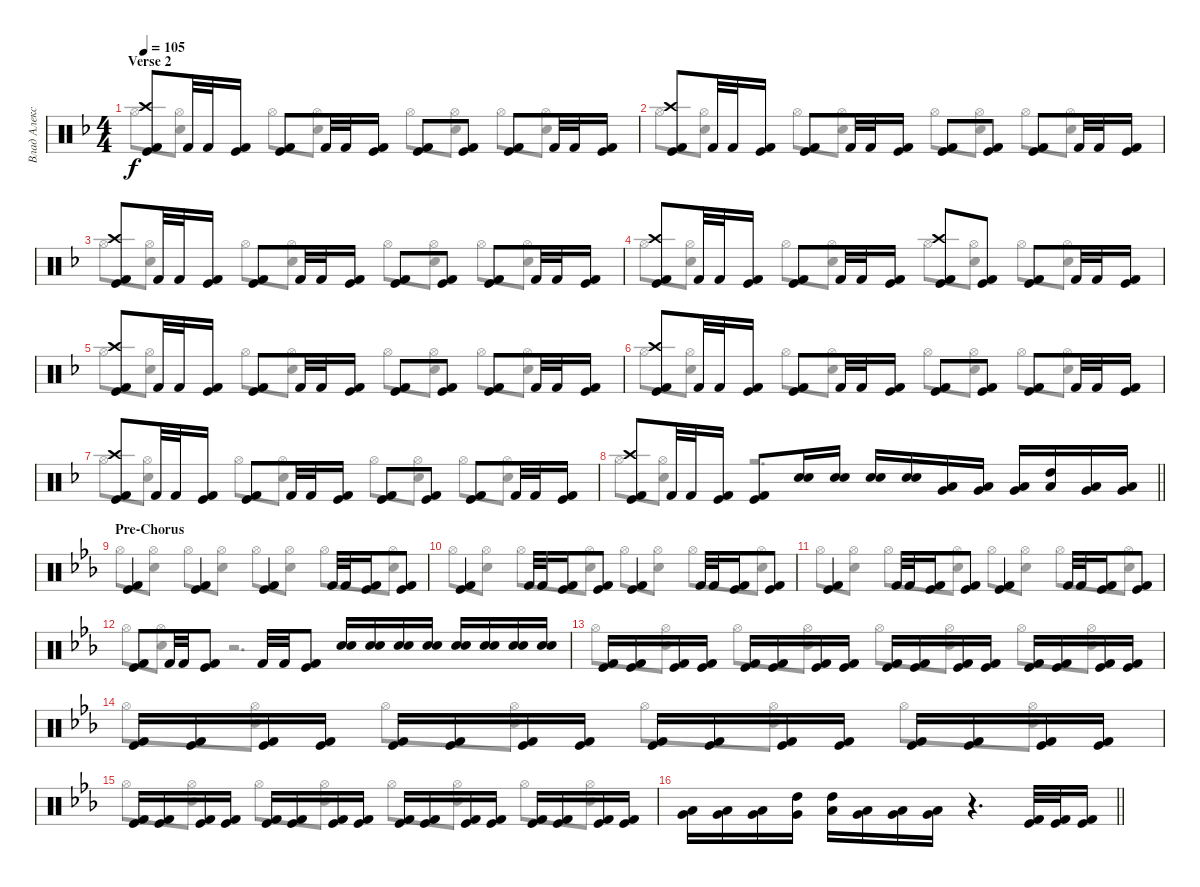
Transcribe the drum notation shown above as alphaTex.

\track ("Влад Алексеенко" "Влад Алекс") {instrument percussion}
\staff {score}
\articulation defaults
\voice
\ts (4 4)
\section ("" "Verse 2")
\tempo 105
\clef neutral
\ks f
("Kick (hit) 2" "Kick (hit)" "Crash high (hit)").8{dy f} "Kick (hit) 2".32 "Kick (hit) 2".32 ("Kick (hit) 2" "Kick (hit)").16 ("Kick (hit) 2" "Kick (hit)").8 "Kick (hit) 2".32 "Kick (hit) 2".32 ("Kick (hit) 2" "Kick (hit)").16 ("Kick (hit) 2" "Kick (hit)").8 ("Kick (hit) 2" "Kick (hit)").8 ("Kick (hit) 2" "Kick (hit)").8 "Kick (hit) 2".32 "Kick (hit) 2".32 ("Kick (hit) 2" "Kick (hit)").16 |
("Kick (hit) 2" "Kick (hit)" "Crash high (hit)").8 "Kick (hit) 2".32 "Kick (hit) 2".32 ("Kick (hit) 2" "Kick (hit)").16 ("Kick (hit) 2" "Kick (hit)").8 "Kick (hit) 2".32 "Kick (hit) 2".32 ("Kick (hit) 2" "Kick (hit)").16 ("Kick (hit) 2" "Kick (hit)").8 ("Kick (hit) 2" "Kick (hit)").8 ("Kick (hit) 2" "Kick (hit)").8 "Kick (hit) 2".32 "Kick (hit) 2".32 ("Kick (hit) 2" "Kick (hit)").16 |
("Kick (hit) 2" "Kick (hit)" "Crash high (hit)").8 "Kick (hit) 2".32 "Kick (hit) 2".32 ("Kick (hit) 2" "Kick (hit)").16 ("Kick (hit) 2" "Kick (hit)").8 "Kick (hit) 2".32 "Kick (hit) 2".32 ("Kick (hit) 2" "Kick (hit)").16 ("Kick (hit) 2" "Kick (hit)").8 ("Kick (hit) 2" "Kick (hit)").8 ("Kick (hit) 2" "Kick (hit)").8 "Kick (hit) 2".32 "Kick (hit) 2".32 ("Kick (hit) 2" "Kick (hit)").16 |
("Kick (hit) 2" "Kick (hit)" "Crash high (hit)").8 "Kick (hit) 2".32 "Kick (hit) 2".32 ("Kick (hit) 2" "Kick (hit)").16 ("Kick (hit) 2" "Kick (hit)").8 "Kick (hit) 2".32 "Kick (hit) 2".32 ("Kick (hit) 2" "Kick (hit)").16 ("Kick (hit) 2" "Kick (hit)" "Crash high (hit)").8 ("Kick (hit) 2" "Kick (hit)").8 ("Kick (hit) 2" "Kick (hit)").8 "Kick (hit) 2".32 "Kick (hit) 2".32 ("Kick (hit) 2" "Kick (hit)").16 |
("Kick (hit) 2" "Kick (hit)" "Crash high (hit)").8 "Kick (hit) 2".32 "Kick (hit) 2".32 ("Kick (hit) 2" "Kick (hit)").16 ("Kick (hit) 2" "Kick (hit)").8 "Kick (hit) 2".32 "Kick (hit) 2".32 ("Kick (hit) 2" "Kick (hit)").16 ("Kick (hit) 2" "Kick (hit)").8 ("Kick (hit) 2" "Kick (hit)").8 ("Kick (hit) 2" "Kick (hit)").8 "Kick (hit) 2".32 "Kick (hit) 2".32 ("Kick (hit) 2" "Kick (hit)").16 |
("Kick (hit) 2" "Kick (hit)" "Crash high (hit)").8 "Kick (hit) 2".32 "Kick (hit) 2".32 ("Kick (hit) 2" "Kick (hit)").16 ("Kick (hit) 2" "Kick (hit)").8 "Kick (hit) 2".32 "Kick (hit) 2".32 ("Kick (hit) 2" "Kick (hit)").16 ("Kick (hit) 2" "Kick (hit)").8 ("Kick (hit) 2" "Kick (hit)").8 ("Kick (hit) 2" "Kick (hit)").8 "Kick (hit) 2".32 "Kick (hit) 2".32 ("Kick (hit) 2" "Kick (hit)").16 |
("Kick (hit) 2" "Kick (hit)" "Crash high (hit)").8 "Kick (hit) 2".32 "Kick (hit) 2".32 ("Kick (hit) 2" "Kick (hit)").16 ("Kick (hit) 2" "Kick (hit)").8 "Kick (hit) 2".32 "Kick (hit) 2".32 ("Kick (hit) 2" "Kick (hit)").16 ("Kick (hit) 2" "Kick (hit)").8 ("Kick (hit) 2" "Kick (hit)").8 ("Kick (hit) 2" "Kick (hit)").8 "Kick (hit) 2".32 "Kick (hit) 2".32 ("Kick (hit) 2" "Kick (hit)").16 |
\barLineRight lightlight
("Kick (hit) 2" "Kick (hit)" "Crash high (hit)").8 "Kick (hit) 2".32 "Kick (hit) 2".32 ("Kick (hit) 2" "Kick (hit)").16 ("Kick (hit) 2" "Kick (hit)").8 ("Snare (hit) 2" "Snare (hit) 2").16 ("Snare (hit) 2" "Snare (hit) 2").16 ("Snare (hit) 2" "Snare (hit) 2").16 ("Snare (hit) 2" "Snare (hit) 2").16 ("Low Tom (hit)" "Very Low Tom (hit)").16 ("Very Low Tom (hit)" "Low Tom (hit)").16 ("Low Tom (hit)" "Very Low Tom (hit)").16 ("Low Tom (hit)" "High Tom (hit)").16 ("Very Low Tom (hit)" "Low Tom (hit)").16 ("Low Floor Tom (hit)" "Very Low Tom (hit)").16 |
\section ("" "Pre-Chorus")
\ks eb
("Kick (hit) 2" "Kick (hit)").4 ("Kick (hit) 2" "Kick (hit)").4 ("Kick (hit) 2" "Kick (hit)").4 "Kick (hit) 2".32 "Kick (hit) 2".32 ("Kick (hit) 2" "Kick (hit)").16 ("Kick (hit) 2" "Kick (hit)").8 |
("Kick (hit) 2" "Kick (hit)").4 "Kick (hit) 2".32 "Kick (hit) 2".32 ("Kick (hit) 2" "Kick (hit)").16 ("Kick (hit) 2" "Kick (hit)").8 ("Kick (hit) 2" "Kick (hit)").4 "Kick (hit) 2".32 "Kick (hit) 2".32 ("Kick (hit) 2" "Kick (hit)").16 ("Kick (hit) 2" "Kick (hit)").8 |
("Kick (hit) 2" "Kick (hit)").4 "Kick (hit) 2".32 "Kick (hit) 2".32 ("Kick (hit) 2" "Kick (hit)").16 ("Kick (hit) 2" "Kick (hit)").8 ("Kick (hit) 2" "Kick (hit)").4 "Kick (hit) 2".32 "Kick (hit) 2".32 ("Kick (hit) 2" "Kick (hit)").16 ("Kick (hit) 2" "Kick (hit)").8 |
("Kick (hit) 2" "Kick (hit)").8 "Kick (hit) 2".32 "Kick (hit) 2".32 ("Kick (hit) 2" "Kick (hit)").8 "Kick (hit) 2".32 "Kick (hit) 2".32 ("Kick (hit) 2" "Kick (hit)").8 ("Snare (hit) 2" "Snare (hit) 2").16 ("Snare (hit) 2" "Snare (hit) 2").16 ("Snare (hit) 2" "Snare (hit) 2").16 ("Snare (hit) 2" "Snare (hit) 2").16 ("Snare (hit) 2" "Snare (hit) 2").16 ("Snare (hit) 2" "Snare (hit) 2").16 ("Snare (hit) 2" "Snare (hit) 2").16 ("Snare (hit) 2" "Snare (hit) 2").16 |
("Kick (hit) 2" "Kick (hit)").16 ("Kick (hit) 2" "Kick (hit)").16 ("Kick (hit) 2" "Kick (hit)").16 ("Kick (hit) 2" "Kick (hit)").16 ("Kick (hit) 2" "Kick (hit)").16 ("Kick (hit) 2" "Kick (hit)").16 ("Kick (hit) 2" "Kick (hit)").16 ("Kick (hit) 2" "Kick (hit)").16 ("Kick (hit) 2" "Kick (hit)").16 ("Kick (hit) 2" "Kick (hit)").16 ("Kick (hit) 2" "Kick (hit)").16 ("Kick (hit) 2" "Kick (hit)").16 ("Kick (hit) 2" "Kick (hit)").16 ("Kick (hit) 2" "Kick (hit)").16 ("Kick (hit) 2" "Kick (hit)").16 ("Kick (hit) 2" "Kick (hit)").16 |
("Kick (hit) 2" "Kick (hit)").16 ("Kick (hit) 2" "Kick (hit)").16 ("Kick (hit) 2" "Kick (hit)").16 ("Kick (hit) 2" "Kick (hit)").16 ("Kick (hit) 2" "Kick (hit)").16 ("Kick (hit) 2" "Kick (hit)").16 ("Kick (hit) 2" "Kick (hit)").16 ("Kick (hit) 2" "Kick (hit)").16 ("Kick (hit) 2" "Kick (hit)").16 ("Kick (hit) 2" "Kick (hit)").16 ("Kick (hit) 2" "Kick (hit)").16 ("Kick (hit) 2" "Kick (hit)").16 ("Kick (hit) 2" "Kick (hit)").16 ("Kick (hit) 2" "Kick (hit)").16 ("Kick (hit) 2" "Kick (hit)").16 ("Kick (hit) 2" "Kick (hit)").16 |
("Kick (hit) 2" "Kick (hit)").16 ("Kick (hit) 2" "Kick (hit)").16 ("Kick (hit) 2" "Kick (hit)").16 ("Kick (hit) 2" "Kick (hit)").16 ("Kick (hit) 2" "Kick (hit)").16 ("Kick (hit) 2" "Kick (hit)").16 ("Kick (hit) 2" "Kick (hit)").16 ("Kick (hit) 2" "Kick (hit)").16 ("Kick (hit) 2" "Kick (hit)").16 ("Kick (hit) 2" "Kick (hit)").16 ("Kick (hit) 2" "Kick (hit)").16 ("Kick (hit) 2" "Kick (hit)").16 ("Kick (hit) 2" "Kick (hit)").16 ("Kick (hit) 2" "Kick (hit)").16 ("Kick (hit) 2" "Kick (hit)").16 ("Kick (hit) 2" "Kick (hit)").16 |
\barLineRight lightlight
("Low Tom (hit)" "Very Low Tom (hit)").16 ("Low Tom (hit)" "Very Low Tom (hit)").16 ("Very Low Tom (hit)" "Low Tom (hit)").16 ("Very Low Tom (hit)" "High Tom (hit)").16 ("Low Floor Tom (hit)" "High Tom (hit)").16 ("Very Low Tom (hit)" "Low Tom (hit)").16 ("Very Low Tom (hit)" "Low Tom (hit)").16 ("Low Tom (hit)" "Very Low Tom (hit)").16 r.4{d} ("Kick (hit) 2" "Kick (hit)").32 ("Kick (hit) 2" "Kick (hit)").32 ("Kick (hit) 2" "Kick (hit)").16
\voice
\clef neutral
\ottava regular
\simile none
\ks f "Hi-Hat (open)".8{dy f}
("Hi-Hat (open)" "Snare (hit) 2").8 "Hi-Hat (open)".8 ("Hi-Hat (open)" "Snare (hit) 2").8 "Hi-Hat (open)".8 ("Hi-Hat (open)" "Snare (hit) 2").8 "Hi-Hat (open)".8 ("Hi-Hat (open)" "Snare (hit) 2").8 |
"Hi-Hat (open)".8 ("Hi-Hat (open)" "Snare (hit) 2").8 "Hi-Hat (open)".8 ("Hi-Hat (open)" "Snare (hit) 2").8 "Hi-Hat (open)".8 ("Hi-Hat (open)" "Snare (hit) 2").8 "Hi-Hat (open)".8 ("Hi-Hat (open)" "Snare (hit) 2").8 |
"Hi-Hat (open)".8 ("Hi-Hat (open)" "Snare (hit) 2").8 "Hi-Hat (open)".8 ("Hi-Hat (open)" "Snare (hit) 2").8 "Hi-Hat (open)".8 ("Hi-Hat (open)" "Snare (hit) 2").8 "Hi-Hat (open)".8 ("Hi-Hat (open)" "Snare (hit) 2").8 |
"Hi-Hat (open)".8 ("Hi-Hat (open)" "Snare (hit) 2").8 "Hi-Hat (open)".8 ("Hi-Hat (open)" "Snare (hit) 2").8 "Hi-Hat (open)".8 ("Hi-Hat (open)" "Snare (hit) 2").8 "Hi-Hat (open)".8 ("Hi-Hat (open)" "Snare (hit) 2").8 |
"Hi-Hat (open)".8 ("Hi-Hat (open)" "Snare (hit) 2").8 "Hi-Hat (open)".8 ("Hi-Hat (open)" "Snare (hit) 2").8 "Hi-Hat (open)".8 ("Hi-Hat (open)" "Snare (hit) 2").8 "Hi-Hat (open)".8 ("Hi-Hat (open)" "Snare (hit) 2").8 |
"Hi-Hat (open)".8 ("Hi-Hat (open)" "Snare (hit) 2").8 "Hi-Hat (open)".8 ("Hi-Hat (open)" "Snare (hit) 2").8 "Hi-Hat (open)".8 ("Hi-Hat (open)" "Snare (hit) 2").8 "Hi-Hat (open)".8 ("Hi-Hat (open)" "Snare (hit) 2").8 |
"Hi-Hat (open)".8 ("Hi-Hat (open)" "Snare (hit) 2").8 "Hi-Hat (open)".8 ("Hi-Hat (open)" "Snare (hit) 2").8 "Hi-Hat (open)".8 ("Hi-Hat (open)" "Snare (hit) 2").8 "Hi-Hat (open)".8 ("Hi-Hat (open)" "Snare (hit) 2").8 |
\barLineRight lightlight "Hi-Hat (open)".8
("Hi-Hat (open)" "Snare (hit) 2").8 r.2{d} |
\ks eb "Hi-Hat (open)".8
("Hi-Hat (open)" "Snare (hit) 2").8 "Hi-Hat (open)".8 ("Hi-Hat (open)" "Snare (hit) 2").8 "Hi-Hat (open)".8 ("Hi-Hat (open)" "Snare (hit) 2").8 "Hi-Hat (open)".8 ("Hi-Hat (open)" "Snare (hit) 2").8 |
"Hi-Hat (open)".8 ("Hi-Hat (open)" "Snare (hit) 2").8 "Hi-Hat (open)".8 ("Hi-Hat (open)" "Snare (hit) 2").8 "Hi-Hat (open)".8 ("Hi-Hat (open)" "Snare (hit) 2").8 "Hi-Hat (open)".8 ("Hi-Hat (open)" "Snare (hit) 2").8 |
"Hi-Hat (open)".8 ("Hi-Hat (open)" "Snare (hit) 2").8 "Hi-Hat (open)".8 ("Hi-Hat (open)" "Snare (hit) 2").8 "Hi-Hat (open)".8 ("Hi-Hat (open)" "Snare (hit) 2").8 "Hi-Hat (open)".8 ("Hi-Hat (open)" "Snare (hit) 2").8 |
"Hi-Hat (open)".8 ("Hi-Hat (open)" "Snare (hit) 2").8 r.2{d} |
"Hi-Hat (open)".8 ("Hi-Hat (open)" "Snare (hit) 2").8 "Hi-Hat (open)".8 ("Hi-Hat (open)" "Snare (hit) 2").8 "Hi-Hat (open)".8 ("Hi-Hat (open)" "Snare (hit) 2").8 "Hi-Hat (open)".8 ("Hi-Hat (open)" "Snare (hit) 2").8 |
"Hi-Hat (open)".8 ("Hi-Hat (open)" "Snare (hit) 2").8 "Hi-Hat (open)".8 ("Hi-Hat (open)" "Snare (hit) 2").8 "Hi-Hat (open)".8 ("Hi-Hat (open)" "Snare (hit) 2").8 "Hi-Hat (open)".8 ("Hi-Hat (open)" "Snare (hit) 2").8 |
"Hi-Hat (open)".8 ("Hi-Hat (open)" "Snare (hit) 2").8 "Hi-Hat (open)".8 ("Hi-Hat (open)" "Snare (hit) 2").8 "Hi-Hat (open)".8 ("Hi-Hat (open)" "Snare (hit) 2").8 "Hi-Hat (open)".8 ("Hi-Hat (open)" "Snare (hit) 2").8 |
\barLineRight lightlight
